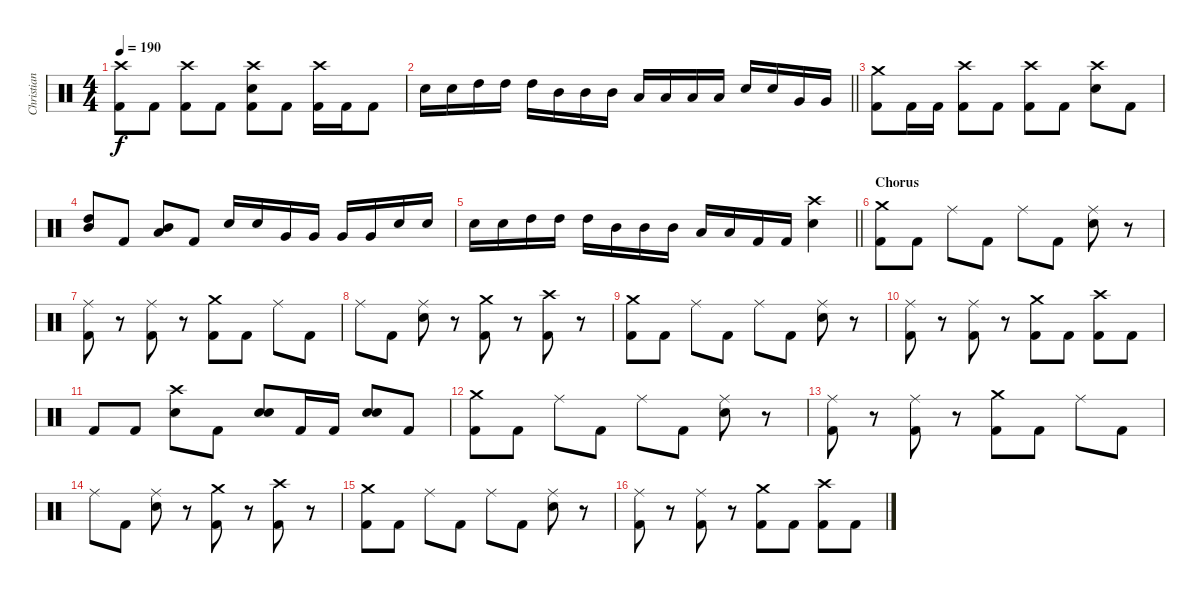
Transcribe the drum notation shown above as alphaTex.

\track ("Christian" "Christian") {instrument percussion}
\staff {score}
\articulation defaults
\ts (4 4)
\tempo 190
\clef neutral
\ks c
("Crash high (hit)" "Kick (hit) 2").8{dy f} "Kick (hit) 2".8 ("Crash high (hit)" "Kick (hit) 2").8 "Kick (hit) 2".8 ("Crash high (hit)" "Electric Snare (hit)" "Kick (hit) 2").8 "Kick (hit) 2".8 ("Crash high (hit)" "Kick (hit) 2").16 "Kick (hit) 2".16 "Kick (hit) 2".8 |
\barLineRight lightlight "Electric Snare (hit)".16 "Electric Snare (hit)".16 "High Tom (hit)".16 "High Tom (hit)".16 "High Tom (hit)".16 "Mid Tom (hit)".16 "Mid Tom (hit)".16 "Mid Tom (hit)".16 "Low Tom (hit)".16 "Low Tom (hit)".16 "Low Tom (hit)".16 "Low Tom (hit)".16 "Electric Snare (hit)".16 "Electric Snare (hit)".16 "Very Low Tom (hit)".16 "Very Low Tom (hit)".16
|
\section ("" "")
("Crash medium (hit)" "Kick (hit) 2").8 "Kick (hit) 2".16 "Kick (hit) 2".16 ("Crash high (hit)" "Kick (hit) 2").8 "Kick (hit) 2".8 ("Crash high (hit)" "Kick (hit) 2").8 "Kick (hit) 2".8 ("Crash high (hit)" "Electric Snare (hit)").8 "Kick (hit) 2".8 |
("Mid Tom (hit)" "High Tom (hit)").8 "Kick (hit) 2".8 ("Low Tom (hit)" "Mid Tom (hit)").8 "Kick (hit) 2".8 "Electric Snare (hit)".16 "Electric Snare (hit)".16 "Very Low Tom (hit)".16 "Very Low Tom (hit)".16 "Very Low Tom (hit)".16 "Very Low Tom (hit)".16 "Electric Snare (hit)".16 "Electric Snare (hit)".16 |
\barLineRight lightlight "Electric Snare (hit)".16 "Electric Snare (hit)".16 "High Tom (hit)".16 "High Tom (hit)".16 "High Tom (hit)".16 "Mid Tom (hit)".16 "Mid Tom (hit)".16 "Mid Tom (hit)".16 "Low Tom (hit)".16 "Low Tom (hit)".16 "Kick (hit) 2".16 "Kick (hit) 2".16
("Crash high (hit)" "Electric Snare (hit)").4 |
\section ("" "Chorus")
("Crash medium (hit)" "Kick (hit) 2").8 "Kick (hit) 2".8 "Ride (middle)".8 "Kick (hit) 2".8 "Ride (middle)".8 "Kick (hit) 2".8 ("Ride (middle)" "Electric Snare (hit)").8 r.8 |
("Ride (middle)" "Kick (hit) 2").8 r.8 ("Ride (middle)" "Kick (hit) 2").8 r.8 ("Crash medium (hit)" "Kick (hit) 2").8 "Kick (hit) 2".8 "Ride (middle)".8 "Kick (hit) 2".8 |
"Ride (middle)".8 "Kick (hit) 2".8 ("Ride (middle)" "Electric Snare (hit)").8 r.8 ("Crash medium (hit)" "Kick (hit) 2").8 r.8 ("Crash high (hit)" "Kick (hit) 2").8 r.8 |
("Crash medium (hit)" "Kick (hit) 2").8 "Kick (hit) 2".8 "Ride (middle)".8 "Kick (hit) 2".8 "Ride (middle)".8 "Kick (hit) 2".8 ("Ride (middle)" "Electric Snare (hit)").8 r.8 |
("Ride (middle)" "Kick (hit) 2").8 r.8 ("Ride (middle)" "Kick (hit) 2").8 r.8 ("Crash medium (hit)" "Kick (hit) 2").8 "Kick (hit) 2".8 ("Crash high (hit)" "Kick (hit) 2").8 "Kick (hit) 2".8 |
"Kick (hit) 2".8 "Kick (hit) 2".8 ("Crash high (hit)" "Electric Snare (hit)").8 "Kick (hit) 2".8 ("Electric Snare (hit)" "Electric Snare (hit)").8 "Kick (hit) 2".16 "Kick (hit) 2".16 ("Electric Snare (hit)" "Electric Snare (hit)").8 "Kick (hit) 2".8 |
("Crash medium (hit)" "Kick (hit) 2").8 "Kick (hit) 2".8 "Ride (middle)".8 "Kick (hit) 2".8 "Ride (middle)".8 "Kick (hit) 2".8 ("Ride (middle)" "Electric Snare (hit)").8 r.8 |
("Ride (middle)" "Kick (hit) 2").8 r.8 ("Ride (middle)" "Kick (hit) 2").8 r.8 ("Crash medium (hit)" "Kick (hit) 2").8 "Kick (hit) 2".8 "Ride (middle)".8 "Kick (hit) 2".8 |
"Ride (middle)".8 "Kick (hit) 2".8 ("Ride (middle)" "Electric Snare (hit)").8 r.8 ("Crash medium (hit)" "Kick (hit) 2").8 r.8 ("Crash high (hit)" "Kick (hit) 2").8 r.8 |
("Crash medium (hit)" "Kick (hit) 2").8 "Kick (hit) 2".8 "Ride (middle)".8 "Kick (hit) 2".8 "Ride (middle)".8 "Kick (hit) 2".8 ("Ride (middle)" "Electric Snare (hit)").8 r.8 |
("Ride (middle)" "Kick (hit) 2").8 r.8 ("Ride (middle)" "Kick (hit) 2").8 r.8 ("Crash medium (hit)" "Kick (hit) 2").8 "Kick (hit) 2".8 ("Crash high (hit)" "Kick (hit) 2").8 "Kick (hit) 2".8
